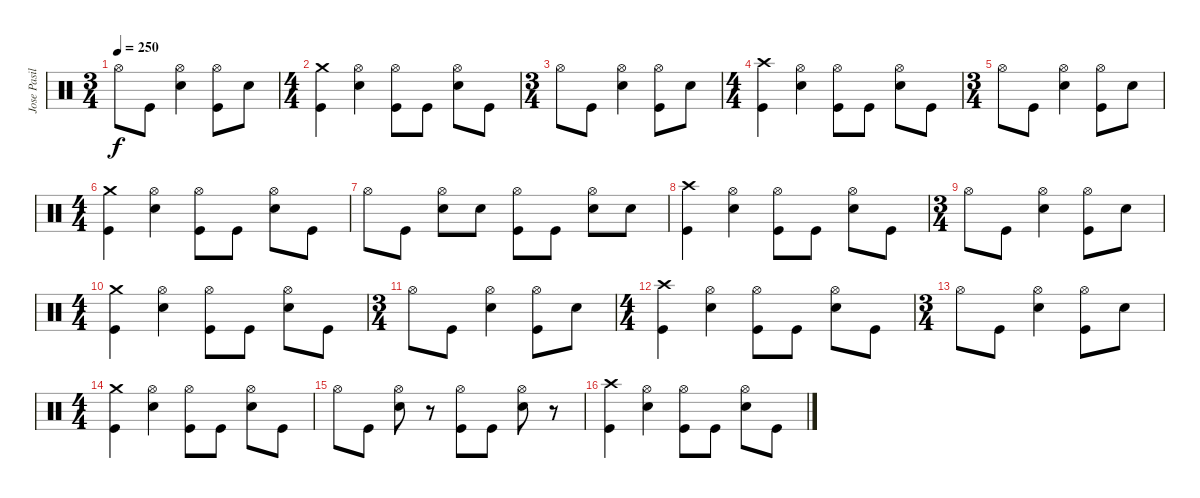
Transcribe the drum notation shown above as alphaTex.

\track ("Jose Pasillas II" "Jose Pasil") {instrument percussion}
\staff {score}
\articulation defaults
\ts (3 4)
\tempo 250
\clef neutral
\ks c "Hi-Hat (open)".8{dy f} "Kick (hit)".8
("Hi-Hat (open)" "Electric Snare (hit)").4 ("Hi-Hat (open)" "Kick (hit)").8 "Electric Snare (hit)".8 |
\ts (4 4)
("Crash medium (hit)" "Kick (hit)").4 ("Hi-Hat (open)" "Electric Snare (hit)").4 ("Hi-Hat (open)" "Kick (hit)").8 "Kick (hit)".8 ("Hi-Hat (open)" "Electric Snare (hit)").8 "Kick (hit)".8 |
\ts (3 4)
"Hi-Hat (open)".8 "Kick (hit)".8 ("Hi-Hat (open)" "Electric Snare (hit)").4 ("Hi-Hat (open)" "Kick (hit)").8 "Electric Snare (hit)".8 |
\ts (4 4)
("Crash high (hit)" "Kick (hit)").4 ("Hi-Hat (open)" "Electric Snare (hit)").4 ("Hi-Hat (open)" "Kick (hit)").8 "Kick (hit)".8 ("Hi-Hat (open)" "Electric Snare (hit)").8 "Kick (hit)".8 |
\ts (3 4)
"Hi-Hat (open)".8 "Kick (hit)".8 ("Hi-Hat (open)" "Electric Snare (hit)").4 ("Hi-Hat (open)" "Kick (hit)").8 "Electric Snare (hit)".8 |
\ts (4 4)
("Crash medium (hit)" "Kick (hit)").4 ("Hi-Hat (open)" "Electric Snare (hit)").4 ("Hi-Hat (open)" "Kick (hit)").8 "Kick (hit)".8 ("Hi-Hat (open)" "Electric Snare (hit)").8 "Kick (hit)".8 |
"Hi-Hat (open)".8 "Kick (hit)".8 ("Hi-Hat (open)" "Electric Snare (hit)").8 "Electric Snare (hit)".8 ("Hi-Hat (open)" "Kick (hit)").8 "Kick (hit)".8 ("Hi-Hat (open)" "Electric Snare (hit)").8 "Electric Snare (hit)".8 |
("Crash high (hit)" "Kick (hit)").4 ("Hi-Hat (open)" "Electric Snare (hit)").4 ("Hi-Hat (open)" "Kick (hit)").8 "Kick (hit)".8 ("Hi-Hat (open)" "Electric Snare (hit)").8 "Kick (hit)".8 |
\ts (3 4)
"Hi-Hat (open)".8 "Kick (hit)".8 ("Hi-Hat (open)" "Electric Snare (hit)").4 ("Hi-Hat (open)" "Kick (hit)").8 "Electric Snare (hit)".8 |
\ts (4 4)
("Crash medium (hit)" "Kick (hit)").4 ("Hi-Hat (open)" "Electric Snare (hit)").4 ("Hi-Hat (open)" "Kick (hit)").8 "Kick (hit)".8 ("Hi-Hat (open)" "Electric Snare (hit)").8 "Kick (hit)".8 |
\ts (3 4)
"Hi-Hat (open)".8 "Kick (hit)".8 ("Hi-Hat (open)" "Electric Snare (hit)").4 ("Hi-Hat (open)" "Kick (hit)").8 "Electric Snare (hit)".8 |
\ts (4 4)
("Crash high (hit)" "Kick (hit)").4 ("Hi-Hat (open)" "Electric Snare (hit)").4 ("Hi-Hat (open)" "Kick (hit)").8 "Kick (hit)".8 ("Hi-Hat (open)" "Electric Snare (hit)").8 "Kick (hit)".8 |
\ts (3 4)
"Hi-Hat (open)".8 "Kick (hit)".8 ("Hi-Hat (open)" "Electric Snare (hit)").4 ("Hi-Hat (open)" "Kick (hit)").8 "Electric Snare (hit)".8 |
\ts (4 4)
("Crash medium (hit)" "Kick (hit)").4 ("Hi-Hat (open)" "Electric Snare (hit)").4 ("Hi-Hat (open)" "Kick (hit)").8 "Kick (hit)".8 ("Hi-Hat (open)" "Electric Snare (hit)").8 "Kick (hit)".8 |
"Hi-Hat (open)".8 "Kick (hit)".8 ("Hi-Hat (open)" "Electric Snare (hit)").8 r.8 ("Hi-Hat (open)" "Kick (hit)").8 "Kick (hit)".8 ("Hi-Hat (open)" "Electric Snare (hit)").8 r.8 |
("Crash high (hit)" "Kick (hit)").4 ("Hi-Hat (open)" "Electric Snare (hit)").4 ("Hi-Hat (open)" "Kick (hit)").8 "Kick (hit)".8 ("Hi-Hat (open)" "Electric Snare (hit)").8 "Kick (hit)".8
